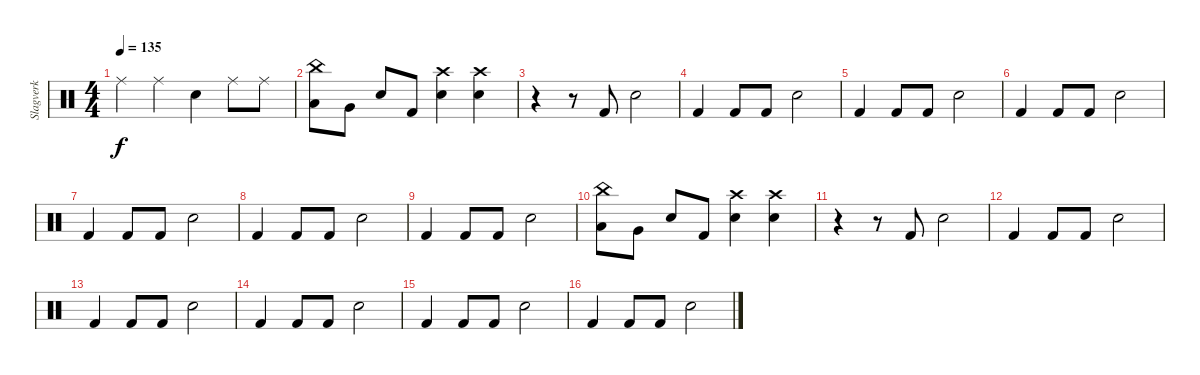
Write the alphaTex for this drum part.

\track ("Slagverk" "Slagverk") {instrument percussion}
\staff {score}
\articulation defaults
\ts (4 4)
\tempo 135
\clef neutral
\ks c "Ride (middle)".4{dy f} "Ride (middle)".4 "Snare (hit) 2".4 "Ride (middle)".8 "Ride (middle)".8
|
("China (hit)" "Low Tom (hit)").8 "Very Low Tom (hit)".8 "Snare (hit) 2".8 "Kick (hit) 2".8 ("Crash high (hit)" "Snare (hit) 2").4 ("Crash high (hit)" "Snare (hit) 2").4 |
r.4 r.8 "Kick (hit) 2".8 "Snare (hit) 2".2 |
"Kick (hit) 2".4 "Kick (hit) 2".8 "Kick (hit) 2".8 "Snare (hit) 2".2 |
"Kick (hit) 2".4 "Kick (hit) 2".8 "Kick (hit) 2".8 "Snare (hit) 2".2 |
"Kick (hit) 2".4 "Kick (hit) 2".8 "Kick (hit) 2".8 "Snare (hit) 2".2 |
"Kick (hit) 2".4 "Kick (hit) 2".8 "Kick (hit) 2".8 "Snare (hit) 2".2 |
"Kick (hit) 2".4 "Kick (hit) 2".8 "Kick (hit) 2".8 "Snare (hit) 2".2 |
"Kick (hit) 2".4 "Kick (hit) 2".8 "Kick (hit) 2".8 "Snare (hit) 2".2 |
("China (hit)" "Low Tom (hit)").8 "Very Low Tom (hit)".8 "Snare (hit) 2".8 "Kick (hit) 2".8 ("Crash high (hit)" "Snare (hit) 2").4 ("Crash high (hit)" "Snare (hit) 2").4 |
r.4 r.8 "Kick (hit) 2".8 "Snare (hit) 2".2 |
"Kick (hit) 2".4 "Kick (hit) 2".8 "Kick (hit) 2".8 "Snare (hit) 2".2 |
"Kick (hit) 2".4 "Kick (hit) 2".8 "Kick (hit) 2".8 "Snare (hit) 2".2 |
"Kick (hit) 2".4 "Kick (hit) 2".8 "Kick (hit) 2".8 "Snare (hit) 2".2 |
"Kick (hit) 2".4 "Kick (hit) 2".8 "Kick (hit) 2".8 "Snare (hit) 2".2 |
"Kick (hit) 2".4 "Kick (hit) 2".8 "Kick (hit) 2".8 "Snare (hit) 2".2
